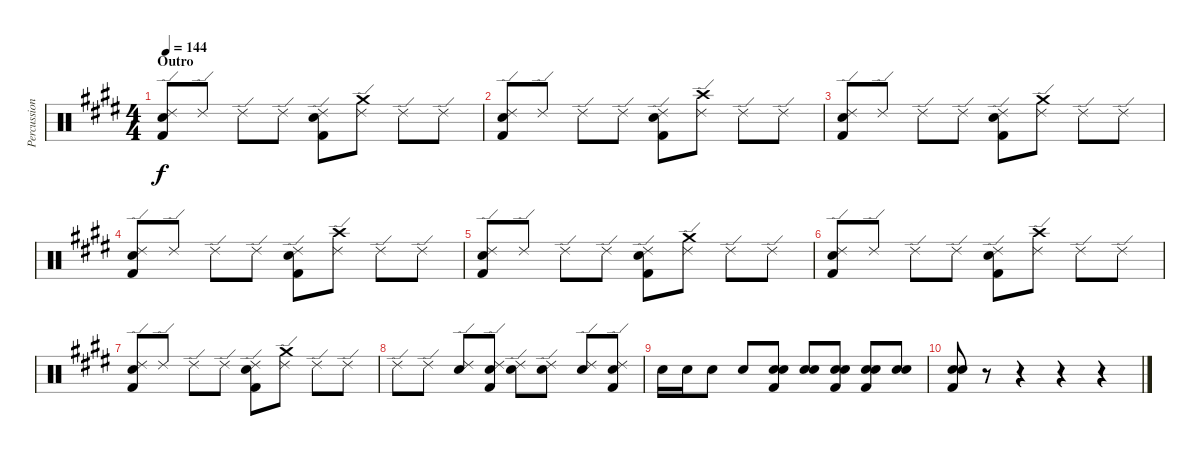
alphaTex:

\track ("Percussion" "Percussion") {instrument percussion}
\staff {score}
\articulation defaults
\ts (4 4)
\section ("" "Outro")
\tempo 144
\clef neutral
\ks c#minor
("Ride (edge) 2" "Snare (hit) 2" "Kick (hit) 2").8{dy f} "Ride (edge) 2".8 "Ride (edge) 2".8 "Ride (edge) 2".8 ("Ride (edge) 2" "Snare (hit) 2" "Kick (hit) 2").8 ("Ride (edge) 2" "Crash medium (hit)").8 "Ride (edge) 2".8 "Ride (edge) 2".8 |
("Ride (edge) 2" "Snare (hit) 2" "Kick (hit) 2").8 "Ride (edge) 2".8 "Ride (edge) 2".8 "Ride (edge) 2".8 ("Ride (edge) 2" "Snare (hit) 2" "Kick (hit) 2").8 ("Ride (edge) 2" "Crash high (hit)").8 "Ride (edge) 2".8 "Ride (edge) 2".8 |
("Ride (edge) 2" "Snare (hit) 2" "Kick (hit) 2").8 "Ride (edge) 2".8 "Ride (edge) 2".8 "Ride (edge) 2".8 ("Ride (edge) 2" "Snare (hit) 2" "Kick (hit) 2").8 ("Ride (edge) 2" "Crash medium (hit)").8 "Ride (edge) 2".8 "Ride (edge) 2".8 |
("Ride (edge) 2" "Snare (hit) 2" "Kick (hit) 2").8 "Ride (edge) 2".8 "Ride (edge) 2".8 "Ride (edge) 2".8 ("Ride (edge) 2" "Snare (hit) 2" "Kick (hit) 2").8 ("Ride (edge) 2" "Crash high (hit)").8 "Ride (edge) 2".8 "Ride (edge) 2".8 |
("Ride (edge) 2" "Snare (hit) 2" "Kick (hit) 2").8 "Ride (edge) 2".8 "Ride (edge) 2".8 "Ride (edge) 2".8 ("Ride (edge) 2" "Snare (hit) 2" "Kick (hit) 2").8 ("Ride (edge) 2" "Crash medium (hit)").8 "Ride (edge) 2".8 "Ride (edge) 2".8 |
("Ride (edge) 2" "Snare (hit) 2" "Kick (hit) 2").8 "Ride (edge) 2".8 "Ride (edge) 2".8 "Ride (edge) 2".8 ("Ride (edge) 2" "Snare (hit) 2" "Kick (hit) 2").8 ("Ride (edge) 2" "Crash high (hit)").8 "Ride (edge) 2".8 "Ride (edge) 2".8 |
("Ride (edge) 2" "Snare (hit) 2" "Kick (hit) 2").8 "Ride (edge) 2".8 "Ride (edge) 2".8 "Ride (edge) 2".8 ("Ride (edge) 2" "Snare (hit) 2" "Kick (hit) 2").8 ("Ride (edge) 2" "Crash medium (hit)").8 "Ride (edge) 2".8 "Ride (edge) 2".8 |
"Ride (edge) 2".8 "Ride (edge) 2".8 ("Ride (edge) 2" "Snare (hit) 2").8 ("Ride (edge) 2" "Snare (hit) 2" "Kick (hit) 2").8 ("Ride (edge) 2" "Snare (hit) 2").8 ("Ride (edge) 2" "Snare (hit) 2").8 ("Ride (edge) 2" "Snare (hit) 2").8 ("Ride (edge) 2" "Snare (hit) 2" "Kick (hit) 2").8 |
"Snare (hit) 2".16 "Snare (hit) 2".16 "Snare (hit) 2".8 "Snare (hit) 2".8 ("Snare (hit) 2" "Snare (hit) 2" "Kick (hit) 2").8 ("Snare (hit) 2" "Snare (hit) 2").8 ("Snare (hit) 2" "Snare (hit) 2" "Kick (hit) 2").8 ("Snare (hit) 2" "Snare (hit) 2" "Kick (hit) 2").8 ("Snare (hit) 2" "Snare (hit) 2").8 |
("Snare (hit) 2" "Snare (hit) 2" "Kick (hit) 2").8 r.8 r.4 r.4 r.4
